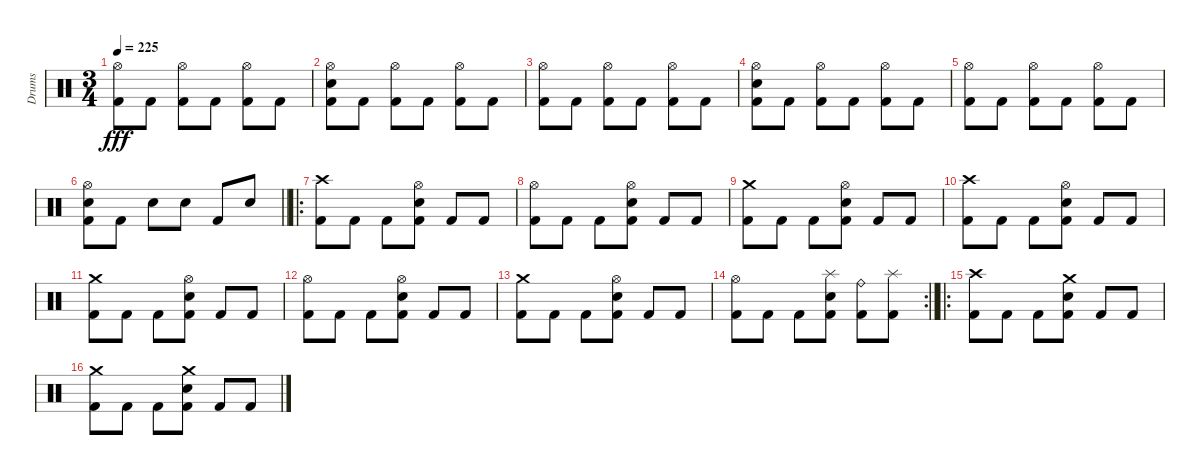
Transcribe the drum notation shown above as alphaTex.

\track ("Drums" "Drums") {instrument percussion}
\staff {score}
\articulation defaults
\ts (3 4)
\tempo 225
\clef neutral
\ks c
("Hi-Hat (open)" "Kick (hit) 2").8{dy fff} "Kick (hit) 2".8 ("Hi-Hat (open)" "Kick (hit) 2").8 "Kick (hit) 2".8 ("Hi-Hat (open)" "Kick (hit) 2").8 "Kick (hit) 2".8 |
("Hi-Hat (open)" "Electric Snare (hit)" "Kick (hit) 2").8 "Kick (hit) 2".8 ("Hi-Hat (open)" "Kick (hit) 2").8 "Kick (hit) 2".8 ("Hi-Hat (open)" "Kick (hit) 2").8 "Kick (hit) 2".8 |
("Hi-Hat (open)" "Kick (hit) 2").8 "Kick (hit) 2".8 ("Hi-Hat (open)" "Kick (hit) 2").8 "Kick (hit) 2".8 ("Hi-Hat (open)" "Kick (hit) 2").8 "Kick (hit) 2".8 |
("Hi-Hat (open)" "Electric Snare (hit)" "Kick (hit) 2").8 "Kick (hit) 2".8 ("Hi-Hat (open)" "Kick (hit) 2").8 "Kick (hit) 2".8 ("Hi-Hat (open)" "Kick (hit) 2").8 "Kick (hit) 2".8 |
("Hi-Hat (open)" "Kick (hit) 2").8 "Kick (hit) 2".8 ("Hi-Hat (open)" "Kick (hit) 2").8 "Kick (hit) 2".8 ("Hi-Hat (open)" "Kick (hit) 2").8 "Kick (hit) 2".8 |
\barLineRight lightlight
("Hi-Hat (open)" "Electric Snare (hit)" "Kick (hit) 2").8 "Kick (hit) 2".8 "Electric Snare (hit)".8 "Electric Snare (hit)".8 "Kick (hit) 2".8 "Electric Snare (hit)".8 |
\ro
("Crash high (hit)" "Kick (hit) 2").8 "Kick (hit) 2".8 "Kick (hit) 2".8 ("Hi-Hat (open)" "Electric Snare (hit)" "Kick (hit) 2").8 "Kick (hit) 2".8 "Kick (hit) 2".8 |
("Hi-Hat (open)" "Kick (hit) 2").8 "Kick (hit) 2".8 "Kick (hit) 2".8 ("Hi-Hat (open)" "Electric Snare (hit)" "Kick (hit) 2").8 "Kick (hit) 2".8 "Kick (hit) 2".8 |
("Crash medium (hit)" "Kick (hit) 2").8 "Kick (hit) 2".8 "Kick (hit) 2".8 ("Hi-Hat (open)" "Electric Snare (hit)" "Kick (hit) 2").8 "Kick (hit) 2".8 "Kick (hit) 2".8 |
("Crash high (hit)" "Kick (hit) 2").8 "Kick (hit) 2".8 "Kick (hit) 2".8 ("Hi-Hat (open)" "Electric Snare (hit)" "Kick (hit) 2").8 "Kick (hit) 2".8 "Kick (hit) 2".8 |
("Crash medium (hit)" "Kick (hit) 2").8 "Kick (hit) 2".8 "Kick (hit) 2".8 ("Hi-Hat (open)" "Electric Snare (hit)" "Kick (hit) 2").8 "Kick (hit) 2".8 "Kick (hit) 2".8 |
("Hi-Hat (open)" "Kick (hit) 2").8 "Kick (hit) 2".8 "Kick (hit) 2".8 ("Hi-Hat (open)" "Electric Snare (hit)" "Kick (hit) 2").8 "Kick (hit) 2".8 "Kick (hit) 2".8 |
("Crash medium (hit)" "Kick (hit) 2").8 "Kick (hit) 2".8 "Kick (hit) 2".8 ("Hi-Hat (open)" "Electric Snare (hit)" "Kick (hit) 2").8 "Kick (hit) 2".8 "Kick (hit) 2".8 |
\rc 2
\barLineRight lightlight
("Hi-Hat (open)" "Kick (hit) 2").8 "Kick (hit) 2".8 "Kick (hit) 2".8 ("Splash (hit)" "Electric Snare (hit)" "Kick (hit) 2").8 ("Ride (bell)" "Kick (hit) 2").8 ("Splash (hit)" "Kick (hit) 2").8 |
\ro
("Crash high (hit)" "Kick (hit) 2").8 "Kick (hit) 2".8 "Kick (hit) 2".8 ("Crash medium (hit)" "Electric Snare (hit)" "Kick (hit) 2").8 "Kick (hit) 2".8 "Kick (hit) 2".8 |
("Crash medium (hit)" "Kick (hit) 2").8 "Kick (hit) 2".8 "Kick (hit) 2".8 ("Crash medium (hit)" "Electric Snare (hit)" "Kick (hit) 2").8 "Kick (hit) 2".8 "Kick (hit) 2".8
